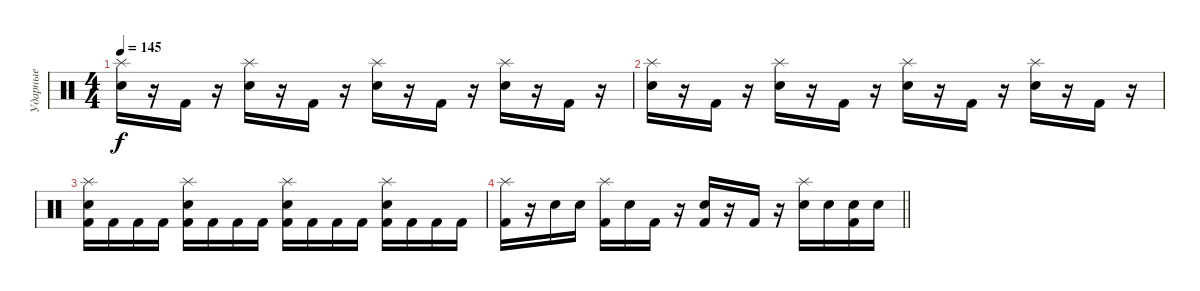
\track ("Ударные" "Ударные") {instrument percussion}
\staff {score}
\articulation defaults
\ts (4 4)
\tempo 145
\clef neutral
\ks c
("Splash (hit)" "Electric Snare (hit)").16{dy f} r.16 "Kick (hit) 2".16 r.16 ("Splash (hit)" "Electric Snare (hit)").16 r.16 "Kick (hit) 2".16 r.16 ("Splash (hit)" "Electric Snare (hit)").16 r.16 "Kick (hit) 2".16 r.16 ("Splash (hit)" "Electric Snare (hit)").16 r.16 "Kick (hit) 2".16 r.16 |
("Splash (hit)" "Electric Snare (hit)").16 r.16 "Kick (hit) 2".16 r.16 ("Splash (hit)" "Electric Snare (hit)").16 r.16 "Kick (hit) 2".16 r.16 ("Splash (hit)" "Electric Snare (hit)").16 r.16 "Kick (hit) 2".16 r.16 ("Splash (hit)" "Electric Snare (hit)").16 r.16 "Kick (hit) 2".16 r.16 |
("Splash (hit)" "Electric Snare (hit)" "Kick (hit) 2").16 "Kick (hit) 2".16 "Kick (hit) 2".16 "Kick (hit) 2".16 ("Splash (hit)" "Electric Snare (hit)" "Kick (hit) 2").16 "Kick (hit) 2".16 "Kick (hit) 2".16 "Kick (hit) 2".16 ("Splash (hit)" "Electric Snare (hit)" "Kick (hit) 2").16 "Kick (hit) 2".16 "Kick (hit) 2".16 "Kick (hit) 2".16 ("Splash (hit)" "Electric Snare (hit)" "Kick (hit) 2").16 "Kick (hit) 2".16 "Kick (hit) 2".16 "Kick (hit) 2".16 |
\barLineRight lightlight
("Splash (hit)" "Kick (hit) 2").16 r.16 "Electric Snare (hit)".16 "Electric Snare (hit)".16 ("Splash (hit)" "Kick (hit) 2").16 "Electric Snare (hit)".16 "Kick (hit) 2".16 r.16 ("Electric Snare (hit)" "Kick (hit) 2").16 r.16 "Kick (hit) 2".16 r.16 ("Splash (hit)" "Electric Snare (hit)").16 "Electric Snare (hit)".16 ("Electric Snare (hit)" "Kick (hit) 2").16 "Electric Snare (hit)".16
